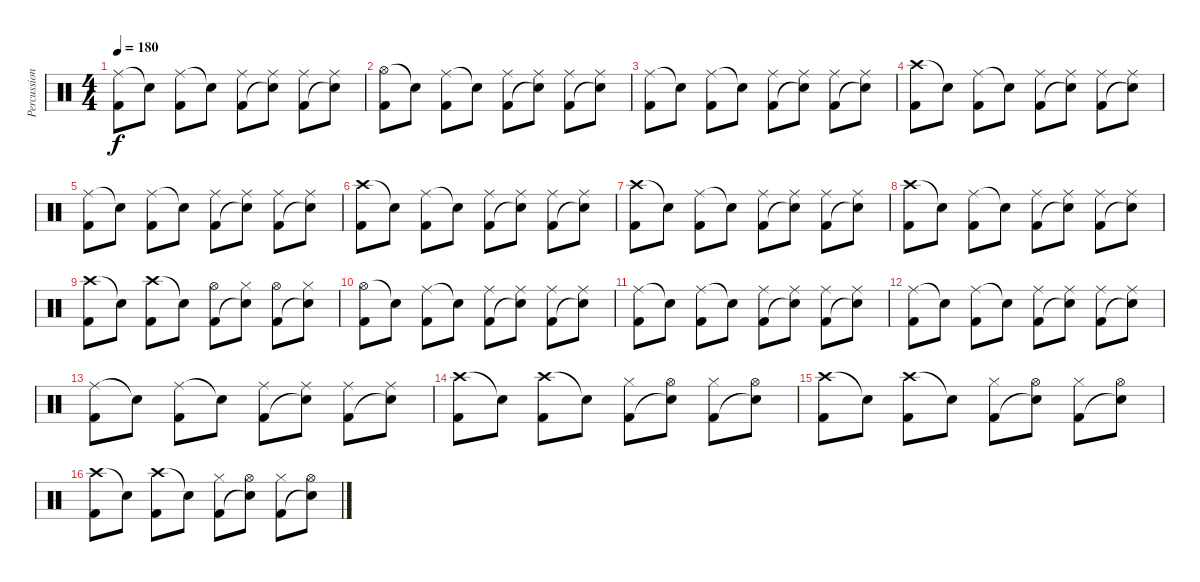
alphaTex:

\track ("Percussion" "Percussion") {instrument percussion}
\staff {score}
\articulation defaults
\ts (4 4)
\tempo 180
\clef neutral
\ks c
("Ride (middle)" "Kick (hit) 2").8{dy f} "Snare (hit)"{t}.8 ("Ride (middle)" "Kick (hit) 2").8 "Snare (hit)"{t}.8 ("Ride (middle)" "Kick (hit) 2").8 ("Ride (middle)" "Snare (hit)"{t}).8 ("Ride (middle)" "Kick (hit) 2").8 ("Ride (middle)" "Snare (hit)"{t}).8 |
("Hi-Hat (open)" "Kick (hit) 2").8 "Snare (hit)"{t}.8 ("Ride (middle)" "Kick (hit) 2").8 "Snare (hit)"{t}.8 ("Ride (middle)" "Kick (hit) 2").8 ("Ride (middle)" "Snare (hit)"{t}).8 ("Ride (middle)" "Kick (hit) 2").8 ("Ride (middle)" "Snare (hit)"{t}).8 |
("Ride (middle)" "Kick (hit) 2").8 "Snare (hit)"{t}.8 ("Ride (middle)" "Kick (hit) 2").8 "Snare (hit)"{t}.8 ("Ride (middle)" "Kick (hit) 2").8 ("Ride (middle)" "Snare (hit)"{t}).8 ("Ride (middle)" "Kick (hit) 2").8 ("Ride (middle)" "Snare (hit)"{t}).8 |
("Crash high (hit)" "Kick (hit) 2").8 "Snare (hit)"{t}.8 ("Ride (middle)" "Kick (hit) 2").8 "Snare (hit)"{t}.8 ("Ride (middle)" "Kick (hit) 2").8 ("Ride (middle)" "Snare (hit)"{t}).8 ("Ride (middle)" "Kick (hit) 2").8 ("Ride (middle)" "Snare (hit)"{t}).8 |
("Ride (middle)" "Kick (hit) 2").8 "Snare (hit)"{t}.8 ("Ride (middle)" "Kick (hit) 2").8 "Snare (hit)"{t}.8 ("Ride (middle)" "Kick (hit) 2").8 ("Ride (middle)" "Snare (hit)"{t}).8 ("Ride (middle)" "Kick (hit) 2").8 ("Ride (middle)" "Snare (hit)"{t}).8 |
("Crash high (hit)" "Kick (hit) 2").8 "Snare (hit)"{t}.8 ("Ride (middle)" "Kick (hit) 2").8 "Snare (hit)"{t}.8 ("Ride (middle)" "Kick (hit) 2").8 ("Ride (middle)" "Snare (hit)"{t}).8 ("Ride (middle)" "Kick (hit) 2").8 ("Ride (middle)" "Snare (hit)"{t}).8 |
("Crash high (hit)" "Kick (hit) 2").8 "Snare (hit)"{t}.8 ("Ride (middle)" "Kick (hit) 2").8 "Snare (hit)"{t}.8 ("Ride (middle)" "Kick (hit) 2").8 ("Ride (middle)" "Snare (hit)"{t}).8 ("Ride (middle)" "Kick (hit) 2").8 ("Ride (middle)" "Snare (hit)"{t}).8 |
("Crash high (hit)" "Kick (hit) 2").8 "Snare (hit)"{t}.8 ("Ride (middle)" "Kick (hit) 2").8 "Snare (hit)"{t}.8 ("Ride (middle)" "Kick (hit) 2").8 ("Ride (middle)" "Snare (hit)"{t}).8 ("Ride (middle)" "Kick (hit) 2").8 ("Ride (middle)" "Snare (hit)"{t}).8 |
("Crash high (hit)" "Kick (hit) 2").8 "Snare (hit)"{t}.8 ("Crash high (hit)" "Kick (hit) 2").8 "Snare (hit)"{t}.8 ("Hi-Hat (open)" "Kick (hit) 2").8 ("Hi-Hat (closed)" "Snare (hit)"{t}).8 ("Hi-Hat (open)" "Kick (hit) 2").8 ("Hi-Hat (closed)" "Snare (hit)"{t}).8 |
("Hi-Hat (open)" "Kick (hit) 2").8 "Snare (hit)"{t}.8 ("Ride (middle)" "Kick (hit) 2").8 "Snare (hit)"{t}.8 ("Ride (middle)" "Kick (hit) 2").8 ("Ride (middle)" "Snare (hit)"{t}).8 ("Ride (middle)" "Kick (hit) 2").8 ("Ride (middle)" "Snare (hit)"{t}).8 |
("Ride (middle)" "Kick (hit) 2").8 "Snare (hit)"{t}.8 ("Ride (middle)" "Kick (hit) 2").8 "Snare (hit)"{t}.8 ("Ride (middle)" "Kick (hit) 2").8 ("Ride (middle)" "Snare (hit)"{t}).8 ("Ride (middle)" "Kick (hit) 2").8 ("Ride (middle)" "Snare (hit)"{t}).8 |
("Ride (middle)" "Kick (hit) 2").8 "Snare (hit)"{t}.8 ("Ride (middle)" "Kick (hit) 2").8 "Snare (hit)"{t}.8 ("Ride (middle)" "Kick (hit) 2").8 ("Ride (middle)" "Snare (hit)"{t}).8 ("Ride (middle)" "Kick (hit) 2").8 ("Ride (middle)" "Snare (hit)"{t}).8 |
("Ride (middle)" "Kick (hit) 2").8 "Snare (hit)"{t}.8 ("Ride (middle)" "Kick (hit) 2").8 "Snare (hit)"{t}.8 ("Ride (middle)" "Kick (hit) 2").8 ("Ride (middle)" "Snare (hit)"{t}).8 ("Ride (middle)" "Kick (hit) 2").8 ("Ride (middle)" "Snare (hit)"{t}).8 |
("Crash high (hit)" "Kick (hit) 2").8 "Snare (hit)"{t}.8 ("Crash high (hit)" "Kick (hit) 2").8 "Snare (hit)"{t}.8 ("Hi-Hat (closed)" "Kick (hit) 2").8 ("Hi-Hat (open)" "Snare (hit)"{t}).8 ("Hi-Hat (closed)" "Kick (hit) 2").8 ("Hi-Hat (open)" "Snare (hit)"{t}).8 |
("Crash high (hit)" "Kick (hit) 2").8 "Snare (hit)"{t}.8 ("Crash high (hit)" "Kick (hit) 2").8 "Snare (hit)"{t}.8 ("Hi-Hat (closed)" "Kick (hit) 2").8 ("Hi-Hat (open)" "Snare (hit)"{t}).8 ("Hi-Hat (closed)" "Kick (hit) 2").8 ("Hi-Hat (open)" "Snare (hit)"{t}).8 |
("Crash high (hit)" "Kick (hit) 2").8 "Snare (hit)"{t}.8 ("Crash high (hit)" "Kick (hit) 2").8 "Snare (hit)"{t}.8 ("Hi-Hat (closed)" "Kick (hit) 2").8 ("Hi-Hat (open)" "Snare (hit)"{t}).8 ("Hi-Hat (closed)" "Kick (hit) 2").8 ("Hi-Hat (open)" "Snare (hit)"{t}).8
